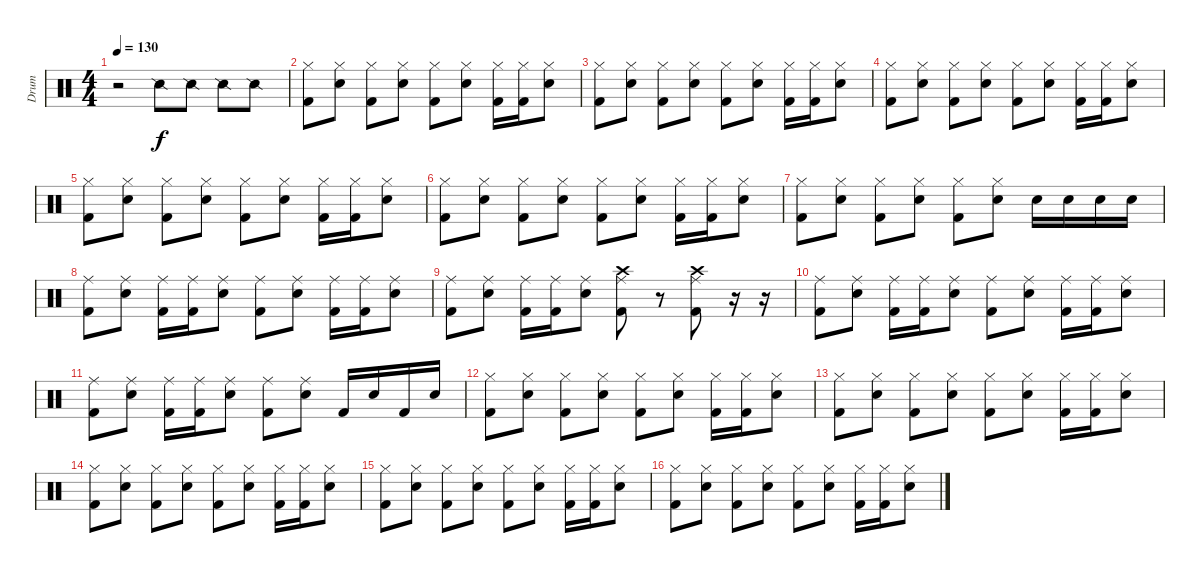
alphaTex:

\track ("Drum" "Drum") {instrument percussion}
\staff {score}
\articulation defaults
\ts (4 4)
\tempo 130
\clef neutral
\ks c
r.2{dy f} "Snare (side stick) 2".8 "Snare (side stick) 2".8 "Snare (side stick) 2".8 "Snare (side stick) 2".8 |
("Kick (hit) 2" "Hi-Hat (closed)").8 ("Electric Snare (hit)" "Hi-Hat (closed)").8 ("Kick (hit) 2" "Hi-Hat (closed)").8 ("Electric Snare (hit)" "Hi-Hat (closed)").8 ("Kick (hit) 2" "Hi-Hat (closed)").8 ("Electric Snare (hit)" "Hi-Hat (closed)").8 ("Kick (hit) 2" "Hi-Hat (closed)").16 ("Kick (hit) 2" "Hi-Hat (closed)").16 ("Electric Snare (hit)" "Hi-Hat (closed)").8 |
("Kick (hit) 2" "Hi-Hat (closed)").8 ("Electric Snare (hit)" "Hi-Hat (closed)").8 ("Kick (hit) 2" "Hi-Hat (closed)").8 ("Electric Snare (hit)" "Hi-Hat (closed)").8 ("Kick (hit) 2" "Hi-Hat (closed)").8 ("Electric Snare (hit)" "Hi-Hat (closed)").8 ("Kick (hit) 2" "Hi-Hat (closed)").16 ("Kick (hit) 2" "Hi-Hat (closed)").16 ("Electric Snare (hit)" "Hi-Hat (closed)").8 |
("Kick (hit) 2" "Hi-Hat (closed)").8 ("Electric Snare (hit)" "Hi-Hat (closed)").8 ("Kick (hit) 2" "Hi-Hat (closed)").8 ("Electric Snare (hit)" "Hi-Hat (closed)").8 ("Kick (hit) 2" "Hi-Hat (closed)").8 ("Electric Snare (hit)" "Hi-Hat (closed)").8 ("Kick (hit) 2" "Hi-Hat (closed)").16 ("Kick (hit) 2" "Hi-Hat (closed)").16 ("Electric Snare (hit)" "Hi-Hat (closed)").8 |
("Kick (hit) 2" "Hi-Hat (closed)").8 ("Electric Snare (hit)" "Hi-Hat (closed)").8 ("Kick (hit) 2" "Hi-Hat (closed)").8 ("Electric Snare (hit)" "Hi-Hat (closed)").8 ("Kick (hit) 2" "Hi-Hat (closed)").8 ("Electric Snare (hit)" "Hi-Hat (closed)").8 ("Kick (hit) 2" "Hi-Hat (closed)").16 ("Kick (hit) 2" "Hi-Hat (closed)").16 ("Electric Snare (hit)" "Hi-Hat (closed)").8 |
("Kick (hit) 2" "Hi-Hat (closed)").8 ("Electric Snare (hit)" "Hi-Hat (closed)").8 ("Kick (hit) 2" "Hi-Hat (closed)").8 ("Electric Snare (hit)" "Hi-Hat (closed)").8 ("Kick (hit) 2" "Hi-Hat (closed)").8 ("Electric Snare (hit)" "Hi-Hat (closed)").8 ("Kick (hit) 2" "Hi-Hat (closed)").16 ("Kick (hit) 2" "Hi-Hat (closed)").16 ("Electric Snare (hit)" "Hi-Hat (closed)").8 |
("Kick (hit) 2" "Hi-Hat (closed)").8 ("Electric Snare (hit)" "Hi-Hat (closed)").8 ("Kick (hit) 2" "Hi-Hat (closed)").8 ("Electric Snare (hit)" "Hi-Hat (closed)").8 ("Kick (hit) 2" "Hi-Hat (closed)").8 ("Electric Snare (hit)" "Hi-Hat (closed)").8 "Electric Snare (hit)".16 "Electric Snare (hit)".16 "Electric Snare (hit)".16 "Electric Snare (hit)".16 |
("Kick (hit) 2" "Ride (middle)").8 ("Electric Snare (hit)" "Ride (middle)").8 ("Kick (hit) 2" "Ride (middle)").16 ("Kick (hit) 2" "Ride (middle)").16 ("Electric Snare (hit)" "Ride (middle)").8 ("Kick (hit) 2" "Ride (middle)").8 ("Electric Snare (hit)" "Ride (middle)").8 ("Kick (hit) 2" "Ride (middle)").16 ("Kick (hit) 2" "Ride (middle)").16 ("Electric Snare (hit)" "Ride (middle)").8 |
("Kick (hit) 2" "Ride (middle)").8 ("Electric Snare (hit)" "Ride (middle)").8 ("Kick (hit) 2" "Ride (middle)").16 ("Kick (hit) 2" "Ride (middle)").16 ("Electric Snare (hit)" "Ride (middle)").8 ("Kick (hit) 2" "Ride (middle)" "Crash high (hit)").8 r.8 ("Kick (hit) 2" "Ride (middle)" "Crash high (hit)").8 r.16 r.16 |
("Kick (hit) 2" "Ride (middle)").8 ("Electric Snare (hit)" "Ride (middle)").8 ("Kick (hit) 2" "Ride (middle)").16 ("Kick (hit) 2" "Ride (middle)").16 ("Electric Snare (hit)" "Ride (middle)").8 ("Kick (hit) 2" "Ride (middle)").8 ("Electric Snare (hit)" "Ride (middle)").8 ("Kick (hit) 2" "Ride (middle)").16 ("Kick (hit) 2" "Ride (middle)").16 ("Electric Snare (hit)" "Ride (middle)").8 |
("Kick (hit) 2" "Ride (middle)").8 ("Electric Snare (hit)" "Ride (middle)").8 ("Kick (hit) 2" "Ride (middle)").16 ("Kick (hit) 2" "Ride (middle)").16 ("Electric Snare (hit)" "Ride (middle)").8 ("Kick (hit) 2" "Ride (middle)").8 ("Electric Snare (hit)" "Ride (middle)").8 "Kick (hit) 2".16 "Electric Snare (hit)".16 "Kick (hit) 2".16 "Electric Snare (hit)".16 |
("Kick (hit) 2" "Hi-Hat (closed)").8 ("Electric Snare (hit)" "Hi-Hat (closed)").8 ("Kick (hit) 2" "Hi-Hat (closed)").8 ("Electric Snare (hit)" "Hi-Hat (closed)").8 ("Kick (hit) 2" "Hi-Hat (closed)").8 ("Electric Snare (hit)" "Hi-Hat (closed)").8 ("Kick (hit) 2" "Hi-Hat (closed)").16 ("Kick (hit) 2" "Hi-Hat (closed)").16 ("Electric Snare (hit)" "Hi-Hat (closed)").8 |
("Kick (hit) 2" "Hi-Hat (closed)").8 ("Electric Snare (hit)" "Hi-Hat (closed)").8 ("Kick (hit) 2" "Hi-Hat (closed)").8 ("Electric Snare (hit)" "Hi-Hat (closed)").8 ("Kick (hit) 2" "Hi-Hat (closed)").8 ("Electric Snare (hit)" "Hi-Hat (closed)").8 ("Kick (hit) 2" "Hi-Hat (closed)").16 ("Kick (hit) 2" "Hi-Hat (closed)").16 ("Electric Snare (hit)" "Hi-Hat (closed)").8 |
("Kick (hit) 2" "Hi-Hat (closed)").8 ("Electric Snare (hit)" "Hi-Hat (closed)").8 ("Kick (hit) 2" "Hi-Hat (closed)").8 ("Electric Snare (hit)" "Hi-Hat (closed)").8 ("Kick (hit) 2" "Hi-Hat (closed)").8 ("Electric Snare (hit)" "Hi-Hat (closed)").8 ("Kick (hit) 2" "Hi-Hat (closed)").16 ("Kick (hit) 2" "Hi-Hat (closed)").16 ("Electric Snare (hit)" "Hi-Hat (closed)").8 |
("Kick (hit) 2" "Hi-Hat (closed)").8 ("Electric Snare (hit)" "Hi-Hat (closed)").8 ("Kick (hit) 2" "Hi-Hat (closed)").8 ("Electric Snare (hit)" "Hi-Hat (closed)").8 ("Kick (hit) 2" "Hi-Hat (closed)").8 ("Electric Snare (hit)" "Hi-Hat (closed)").8 ("Kick (hit) 2" "Hi-Hat (closed)").16 ("Kick (hit) 2" "Hi-Hat (closed)").16 ("Electric Snare (hit)" "Hi-Hat (closed)").8 |
("Kick (hit) 2" "Hi-Hat (closed)").8 ("Electric Snare (hit)" "Hi-Hat (closed)").8 ("Kick (hit) 2" "Hi-Hat (closed)").8 ("Electric Snare (hit)" "Hi-Hat (closed)").8 ("Kick (hit) 2" "Hi-Hat (closed)").8 ("Electric Snare (hit)" "Hi-Hat (closed)").8 ("Kick (hit) 2" "Hi-Hat (closed)").16 ("Kick (hit) 2" "Hi-Hat (closed)").16 ("Electric Snare (hit)" "Hi-Hat (closed)").8
